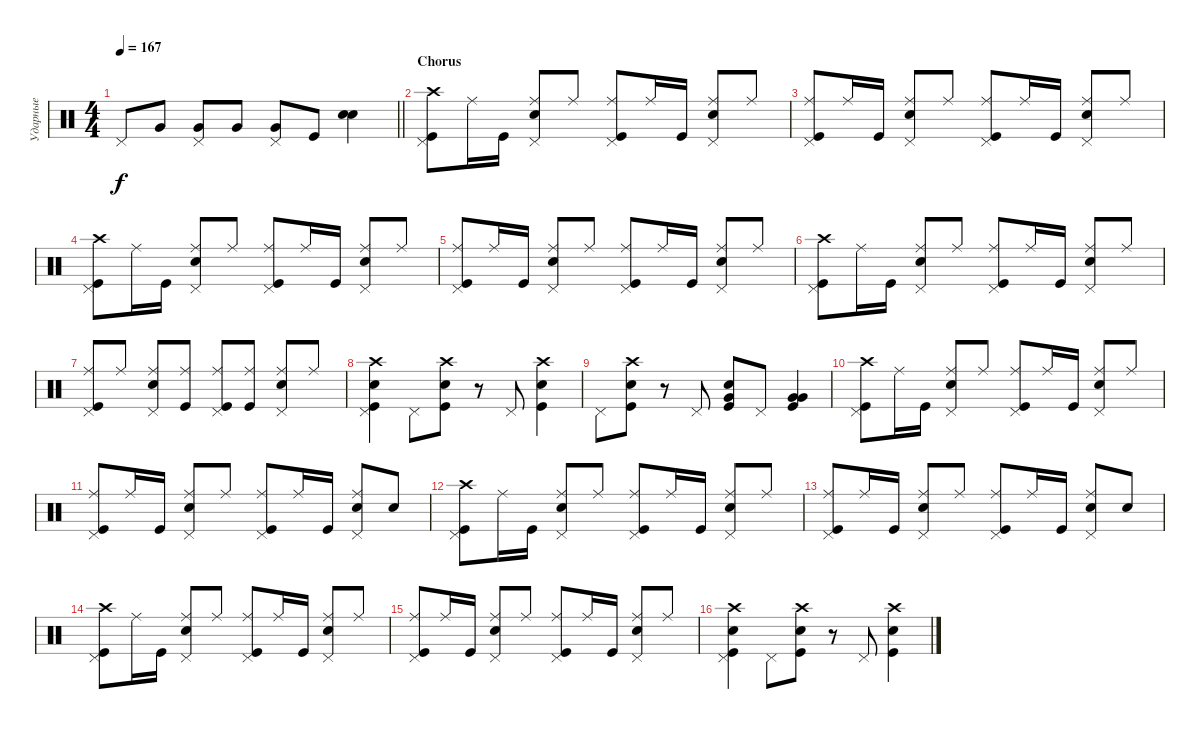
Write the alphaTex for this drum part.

\track ("Ударные" "Ударные") {instrument percussion}
\staff {score}
\articulation defaults
\ts (4 4)
\tempo 167
\clef neutral
\barLineRight lightlight
\ks aminor "Pedal Hi-Hat (hit)".8{dy f} "Very Low Tom (hit)".8
("Very Low Tom (hit)" "Pedal Hi-Hat (hit)").8 "Very Low Tom (hit)".8 ("Very Low Tom (hit)" "Pedal Hi-Hat (hit)").8 "Kick (hit)".8 ("Snare (hit) 2" "Snare (hit) 2").4{bd 240} |
\section ("" "Сhorus")
("Kick (hit)" "Pedal Hi-Hat (hit)" "Crash high (hit)").8 "Ride (middle)".16 "Kick (hit)".16 ("Ride (middle)" "Snare (hit) 2" "Pedal Hi-Hat (hit)").8 "Ride (middle)".8 ("Ride (middle)" "Kick (hit)" "Pedal Hi-Hat (hit)").8 "Ride (middle)".16 "Kick (hit)".16 ("Ride (middle)" "Snare (hit) 2" "Pedal Hi-Hat (hit)").8 "Ride (middle)".8 |
("Kick (hit)" "Ride (middle)" "Pedal Hi-Hat (hit)").8 "Ride (middle)".16 "Kick (hit)".16 ("Snare (hit) 2" "Ride (middle)" "Pedal Hi-Hat (hit)").8 "Ride (middle)".8 ("Ride (middle)" "Kick (hit)" "Pedal Hi-Hat (hit)").8 "Ride (middle)".16 "Kick (hit)".16 ("Snare (hit) 2" "Ride (middle)" "Pedal Hi-Hat (hit)").8 "Ride (middle)".8 |
("Kick (hit)" "Pedal Hi-Hat (hit)" "Crash high (hit)").8 "Ride (middle)".16 "Kick (hit)".16 ("Ride (middle)" "Snare (hit) 2" "Pedal Hi-Hat (hit)").8 "Ride (middle)".8 ("Ride (middle)" "Kick (hit)" "Pedal Hi-Hat (hit)").8 "Ride (middle)".16 "Kick (hit)".16 ("Ride (middle)" "Snare (hit) 2" "Pedal Hi-Hat (hit)").8 "Ride (middle)".8 |
("Kick (hit)" "Ride (middle)" "Pedal Hi-Hat (hit)").8 "Ride (middle)".16 "Kick (hit)".16 ("Snare (hit) 2" "Ride (middle)" "Pedal Hi-Hat (hit)").8 "Ride (middle)".8 ("Ride (middle)" "Kick (hit)" "Pedal Hi-Hat (hit)").8 "Ride (middle)".16 "Kick (hit)".16 ("Snare (hit) 2" "Ride (middle)" "Pedal Hi-Hat (hit)").8 "Ride (middle)".8 |
("Kick (hit)" "Pedal Hi-Hat (hit)" "Crash high (hit)").8 "Ride (middle)".16 "Kick (hit)".16 ("Ride (middle)" "Snare (hit) 2" "Pedal Hi-Hat (hit)").8 "Ride (middle)".8 ("Ride (middle)" "Kick (hit)" "Pedal Hi-Hat (hit)").8 "Ride (middle)".16 "Kick (hit)".16 ("Ride (middle)" "Snare (hit) 2" "Pedal Hi-Hat (hit)").8 "Ride (middle)".8 |
("Kick (hit)" "Ride (middle)" "Pedal Hi-Hat (hit)").8 "Ride (middle)".8 ("Snare (hit) 2" "Ride (middle)" "Pedal Hi-Hat (hit)").8 ("Ride (middle)" "Kick (hit)").8 ("Ride (middle)" "Kick (hit)" "Pedal Hi-Hat (hit)").8 ("Ride (middle)" "Kick (hit)").8 ("Snare (hit) 2" "Ride (middle)" "Pedal Hi-Hat (hit)").8 "Ride (middle)".8 |
("Snare (hit) 2" "Crash high (hit)" "Kick (hit)" "Pedal Hi-Hat (hit)").4 "Pedal Hi-Hat (hit)".8 ("Crash high (hit)" "Kick (hit)" "Snare (hit) 2").8 r.8 "Pedal Hi-Hat (hit)".8 ("Crash high (hit)" "Snare (hit) 2" "Kick (hit)").4 |
"Pedal Hi-Hat (hit)".8 ("Crash high (hit)" "Kick (hit)" "Snare (hit) 2").8 r.8 "Pedal Hi-Hat (hit)".8 ("Very Low Tom (hit)" "Kick (hit)" "Snare (hit) 2").8{bd 240} "Pedal Hi-Hat (hit)".8 ("Kick (hit)" "Very Low Tom (hit)" "Very Low Tom (hit)").4{bd 240} |
("Kick (hit)" "Pedal Hi-Hat (hit)" "Crash high (hit)").8 "Ride (middle)".16 "Kick (hit)".16 ("Ride (middle)" "Snare (hit) 2" "Pedal Hi-Hat (hit)").8 "Ride (middle)".8 ("Ride (middle)" "Kick (hit)" "Pedal Hi-Hat (hit)").8 "Ride (middle)".16 "Kick (hit)".16 ("Ride (middle)" "Snare (hit) 2" "Pedal Hi-Hat (hit)").8 "Ride (middle)".8 |
("Kick (hit)" "Ride (middle)" "Pedal Hi-Hat (hit)").8 "Ride (middle)".16 "Kick (hit)".16 ("Snare (hit) 2" "Ride (middle)" "Pedal Hi-Hat (hit)").8 "Ride (middle)".8 ("Ride (middle)" "Kick (hit)" "Pedal Hi-Hat (hit)").8 "Ride (middle)".16 "Kick (hit)".16 ("Ride (middle)" "Snare (hit) 2" "Pedal Hi-Hat (hit)").8 "Snare (hit) 2".8 |
("Kick (hit)" "Pedal Hi-Hat (hit)" "Crash high (hit)").8 "Ride (middle)".16 "Kick (hit)".16 ("Ride (middle)" "Snare (hit) 2" "Pedal Hi-Hat (hit)").8 "Ride (middle)".8 ("Ride (middle)" "Kick (hit)" "Pedal Hi-Hat (hit)").8 "Ride (middle)".16 "Kick (hit)".16 ("Ride (middle)" "Snare (hit) 2" "Pedal Hi-Hat (hit)").8 "Ride (middle)".8 |
("Kick (hit)" "Ride (middle)" "Pedal Hi-Hat (hit)").8 "Ride (middle)".16 "Kick (hit)".16 ("Snare (hit) 2" "Ride (middle)" "Pedal Hi-Hat (hit)").8 "Ride (middle)".8 ("Ride (middle)" "Kick (hit)" "Pedal Hi-Hat (hit)").8 "Ride (middle)".16 "Kick (hit)".16 ("Ride (middle)" "Snare (hit) 2" "Pedal Hi-Hat (hit)").8 "Snare (hit) 2".8 |
("Kick (hit)" "Pedal Hi-Hat (hit)" "Crash high (hit)").8 "Ride (middle)".16 "Kick (hit)".16 ("Ride (middle)" "Snare (hit) 2" "Pedal Hi-Hat (hit)").8 "Ride (middle)".8 ("Ride (middle)" "Kick (hit)" "Pedal Hi-Hat (hit)").8 "Ride (middle)".16 "Kick (hit)".16 ("Ride (middle)" "Snare (hit) 2" "Pedal Hi-Hat (hit)").8 "Ride (middle)".8 |
("Kick (hit)" "Ride (middle)" "Pedal Hi-Hat (hit)").8 "Ride (middle)".16 "Kick (hit)".16 ("Snare (hit) 2" "Ride (middle)" "Pedal Hi-Hat (hit)").8 "Ride (middle)".8 ("Ride (middle)" "Kick (hit)" "Pedal Hi-Hat (hit)").8 "Ride (middle)".16 "Kick (hit)".16 ("Snare (hit) 2" "Ride (middle)" "Pedal Hi-Hat (hit)").8 "Ride (middle)".8 |
("Snare (hit) 2" "Crash high (hit)" "Kick (hit)" "Pedal Hi-Hat (hit)").4 "Pedal Hi-Hat (hit)".8 ("Crash high (hit)" "Kick (hit)" "Snare (hit) 2").8 r.8 "Pedal Hi-Hat (hit)".8 ("Crash high (hit)" "Snare (hit) 2" "Kick (hit)").4
